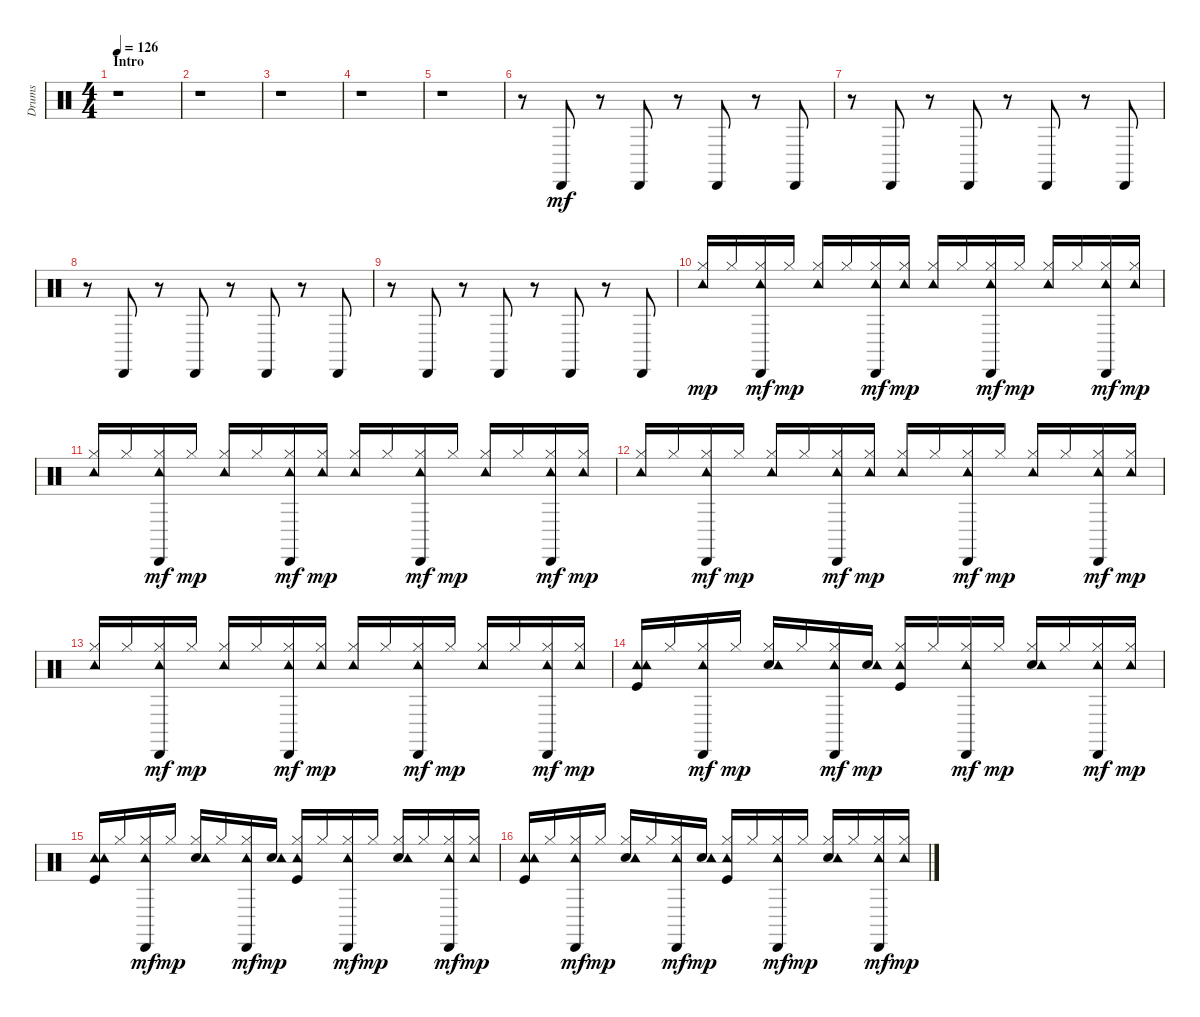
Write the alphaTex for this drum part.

\track ("Drums" "Drums") {instrument percussion}
\staff {score}
\articulation defaults
\ts (4 4)
\section ("" "Intro")
\tempo 126
\clef neutral
\ks c
r.1{dy mf} |
r.1 |
r.1 |
r.1 |
r.1 |
r.8 "Cabasa (hit)".8 r.8 "Cabasa (hit)".8 r.8 "Cabasa (hit)".8 r.8 "Cabasa (hit)".8 |
r.8 "Cabasa (hit)".8 r.8 "Cabasa (hit)".8 r.8 "Cabasa (hit)".8 r.8 "Cabasa (hit)".8 |
r.8 "Cabasa (hit)".8 r.8 "Cabasa (hit)".8 r.8 "Cabasa (hit)".8 r.8 "Cabasa (hit)".8 |
r.8 "Cabasa (hit)".8 r.8 "Cabasa (hit)".8 r.8 "Cabasa (hit)".8 r.8 "Cabasa (hit)".8 |
("Hi-Hat (closed)" "Tambourine (hit)").16{dy mp} "Hi-Hat (closed)".16 ("Hi-Hat (closed)" "Tambourine (hit)" "Cabasa (hit)").16{dy mf} "Hi-Hat (closed)".16{dy mp} ("Hi-Hat (closed)" "Tambourine (hit)").16 "Hi-Hat (closed)".16 ("Hi-Hat (closed)" "Tambourine (hit)" "Cabasa (hit)").16{dy mf} ("Hi-Hat (closed)" "Tambourine (hit)").16{dy mp} ("Hi-Hat (closed)" "Tambourine (hit)").16 "Hi-Hat (closed)".16 ("Hi-Hat (closed)" "Tambourine (hit)" "Cabasa (hit)").16{dy mf} "Hi-Hat (closed)".16{dy mp} ("Hi-Hat (closed)" "Tambourine (hit)").16 "Hi-Hat (closed)".16 ("Hi-Hat (closed)" "Tambourine (hit)" "Cabasa (hit)").16{dy mf} ("Hi-Hat (closed)" "Tambourine (hit)").16{dy mp} |
("Hi-Hat (closed)" "Tambourine (hit)").16 "Hi-Hat (closed)".16 ("Hi-Hat (closed)" "Tambourine (hit)" "Cabasa (hit)").16{dy mf} "Hi-Hat (closed)".16{dy mp} ("Hi-Hat (closed)" "Tambourine (hit)").16 "Hi-Hat (closed)".16 ("Hi-Hat (closed)" "Tambourine (hit)" "Cabasa (hit)").16{dy mf} ("Hi-Hat (closed)" "Tambourine (hit)").16{dy mp} ("Hi-Hat (closed)" "Tambourine (hit)").16 "Hi-Hat (closed)".16 ("Hi-Hat (closed)" "Tambourine (hit)" "Cabasa (hit)").16{dy mf} "Hi-Hat (closed)".16{dy mp} ("Hi-Hat (closed)" "Tambourine (hit)").16 "Hi-Hat (closed)".16 ("Hi-Hat (closed)" "Tambourine (hit)" "Cabasa (hit)").16{dy mf} ("Hi-Hat (closed)" "Tambourine (hit)").16{dy mp} |
("Hi-Hat (closed)" "Tambourine (hit)").16 "Hi-Hat (closed)".16 ("Hi-Hat (closed)" "Tambourine (hit)" "Cabasa (hit)").16{dy mf} "Hi-Hat (closed)".16{dy mp} ("Hi-Hat (closed)" "Tambourine (hit)").16 "Hi-Hat (closed)".16 ("Hi-Hat (closed)" "Tambourine (hit)" "Cabasa (hit)").16{dy mf} ("Hi-Hat (closed)" "Tambourine (hit)").16{dy mp} ("Hi-Hat (closed)" "Tambourine (hit)").16 "Hi-Hat (closed)".16 ("Hi-Hat (closed)" "Tambourine (hit)" "Cabasa (hit)").16{dy mf} "Hi-Hat (closed)".16{dy mp} ("Hi-Hat (closed)" "Tambourine (hit)").16 "Hi-Hat (closed)".16 ("Hi-Hat (closed)" "Tambourine (hit)" "Cabasa (hit)").16{dy mf} ("Hi-Hat (closed)" "Tambourine (hit)").16{dy mp} |
("Hi-Hat (closed)" "Tambourine (hit)").16 "Hi-Hat (closed)".16 ("Hi-Hat (closed)" "Tambourine (hit)" "Cabasa (hit)").16{dy mf} "Hi-Hat (closed)".16{dy mp} ("Hi-Hat (closed)" "Tambourine (hit)").16 "Hi-Hat (closed)".16 ("Hi-Hat (closed)" "Tambourine (hit)" "Cabasa (hit)").16{dy mf} ("Hi-Hat (closed)" "Tambourine (hit)").16{dy mp} ("Hi-Hat (closed)" "Tambourine (hit)").16 "Hi-Hat (closed)".16 ("Hi-Hat (closed)" "Tambourine (hit)" "Cabasa (hit)").16{dy mf} "Hi-Hat (closed)".16{dy mp} ("Hi-Hat (closed)" "Tambourine (hit)").16 "Hi-Hat (closed)".16 ("Hi-Hat (closed)" "Tambourine (hit)" "Cabasa (hit)").16{dy mf} ("Hi-Hat (closed)" "Tambourine (hit)").16{dy mp} |
("Kick (hit)" "Tambourine (hit)" "Tambourine (hit)").16 "Hi-Hat (closed)".16 ("Hi-Hat (closed)" "Tambourine (hit)" "Cabasa (hit)").16{dy mf} "Hi-Hat (closed)".16{dy mp} ("Snare (hit) 2" "Hi-Hat (closed)" "Tambourine (hit)").16 "Hi-Hat (closed)".16 ("Hi-Hat (closed)" "Tambourine (hit)" "Cabasa (hit)").16{dy mf} ("Snare (hit) 2" "Tambourine (hit)").16{dy mp} ("Kick (hit)" "Hi-Hat (closed)" "Tambourine (hit)").16 "Hi-Hat (closed)".16 ("Hi-Hat (closed)" "Tambourine (hit)" "Cabasa (hit)").16{dy mf} "Hi-Hat (closed)".16{dy mp} ("Snare (hit) 2" "Hi-Hat (closed)" "Tambourine (hit)").16 "Hi-Hat (closed)".16 ("Hi-Hat (closed)" "Tambourine (hit)" "Cabasa (hit)").16{dy mf} ("Hi-Hat (closed)" "Tambourine (hit)").16{dy mp} |
("Kick (hit)" "Tambourine (hit)" "Tambourine (hit)").16 "Hi-Hat (closed)".16 ("Hi-Hat (closed)" "Tambourine (hit)" "Cabasa (hit)").16{dy mf} "Hi-Hat (closed)".16{dy mp} ("Snare (hit) 2" "Hi-Hat (closed)" "Tambourine (hit)").16 "Hi-Hat (closed)".16 ("Hi-Hat (closed)" "Tambourine (hit)" "Cabasa (hit)").16{dy mf} ("Snare (hit) 2" "Tambourine (hit)").16{dy mp} ("Kick (hit)" "Hi-Hat (closed)" "Tambourine (hit)").16 "Hi-Hat (closed)".16 ("Hi-Hat (closed)" "Tambourine (hit)" "Cabasa (hit)").16{dy mf} "Hi-Hat (closed)".16{dy mp} ("Snare (hit) 2" "Hi-Hat (closed)" "Tambourine (hit)").16 "Hi-Hat (closed)".16 ("Hi-Hat (closed)" "Tambourine (hit)" "Cabasa (hit)").16{dy mf} ("Hi-Hat (closed)" "Tambourine (hit)").16{dy mp} |
("Kick (hit)" "Tambourine (hit)" "Tambourine (hit)").16 "Hi-Hat (closed)".16 ("Hi-Hat (closed)" "Tambourine (hit)" "Cabasa (hit)").16{dy mf} "Hi-Hat (closed)".16{dy mp} ("Snare (hit) 2" "Hi-Hat (closed)" "Tambourine (hit)").16 "Hi-Hat (closed)".16 ("Hi-Hat (closed)" "Tambourine (hit)" "Cabasa (hit)").16{dy mf} ("Snare (hit) 2" "Tambourine (hit)").16{dy mp} ("Kick (hit)" "Hi-Hat (closed)" "Tambourine (hit)").16 "Hi-Hat (closed)".16 ("Hi-Hat (closed)" "Tambourine (hit)" "Cabasa (hit)").16{dy mf} "Hi-Hat (closed)".16{dy mp} ("Snare (hit) 2" "Hi-Hat (closed)" "Tambourine (hit)").16 "Hi-Hat (closed)".16 ("Hi-Hat (closed)" "Tambourine (hit)" "Cabasa (hit)").16{dy mf} ("Hi-Hat (closed)" "Tambourine (hit)").16{dy mp}
